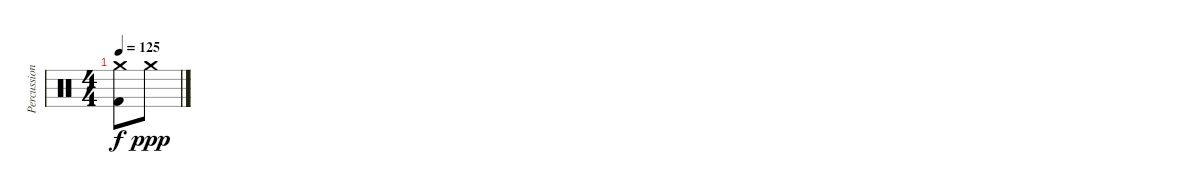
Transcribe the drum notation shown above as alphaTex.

\track ("Percussion" "Percussion") {instrument percussion}
\staff {score}
\articulation defaults
\ts (4 4)
\tempo 125
\clef neutral
\ks c
("Crash medium (hit)" "Kick (hit) 2").8{dy f} "Crash medium (hit)".8{dy ppp}
